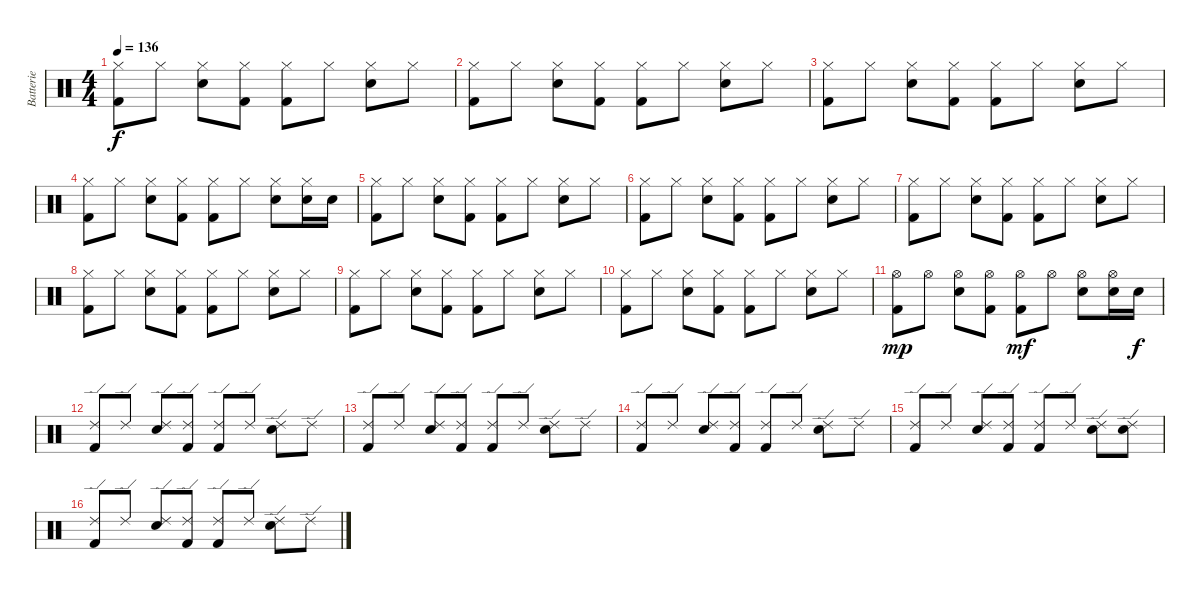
\track ("Batterie" "Batterie") {instrument percussion}
\staff {score}
\articulation defaults
\ts (4 4)
\tempo 136
\clef neutral
\ks c
("Hi-Hat (closed)" "Kick (hit) 2").8{dy f} "Hi-Hat (closed)".8 ("Hi-Hat (closed)" "Electric Snare (hit)").8 ("Hi-Hat (closed)" "Kick (hit) 2").8 ("Hi-Hat (closed)" "Kick (hit) 2").8 "Hi-Hat (closed)".8 ("Hi-Hat (closed)" "Electric Snare (hit)").8 "Hi-Hat (closed)".8 |
("Hi-Hat (closed)" "Kick (hit) 2").8 "Hi-Hat (closed)".8 ("Hi-Hat (closed)" "Electric Snare (hit)").8 ("Hi-Hat (closed)" "Kick (hit) 2").8 ("Hi-Hat (closed)" "Kick (hit) 2").8 "Hi-Hat (closed)".8 ("Hi-Hat (closed)" "Electric Snare (hit)").8 "Hi-Hat (closed)".8 |
("Hi-Hat (closed)" "Kick (hit) 2").8 "Hi-Hat (closed)".8 ("Hi-Hat (closed)" "Electric Snare (hit)").8 ("Hi-Hat (closed)" "Kick (hit) 2").8 ("Hi-Hat (closed)" "Kick (hit) 2").8 "Hi-Hat (closed)".8 ("Hi-Hat (closed)" "Electric Snare (hit)").8 "Hi-Hat (closed)".8 |
("Hi-Hat (closed)" "Kick (hit) 2").8 "Hi-Hat (closed)".8 ("Hi-Hat (closed)" "Electric Snare (hit)").8 ("Hi-Hat (closed)" "Kick (hit) 2").8 ("Hi-Hat (closed)" "Kick (hit) 2").8 "Hi-Hat (closed)".8 ("Hi-Hat (closed)" "Electric Snare (hit)").8 ("Hi-Hat (closed)" "Electric Snare (hit)").16 "Electric Snare (hit)".16 |
("Hi-Hat (closed)" "Kick (hit) 2").8 "Hi-Hat (closed)".8 ("Hi-Hat (closed)" "Electric Snare (hit)").8 ("Hi-Hat (closed)" "Kick (hit) 2").8 ("Hi-Hat (closed)" "Kick (hit) 2").8 "Hi-Hat (closed)".8 ("Hi-Hat (closed)" "Electric Snare (hit)").8 "Hi-Hat (closed)".8 |
("Hi-Hat (closed)" "Kick (hit) 2").8 "Hi-Hat (closed)".8 ("Hi-Hat (closed)" "Electric Snare (hit)").8 ("Hi-Hat (closed)" "Kick (hit) 2").8 ("Hi-Hat (closed)" "Kick (hit) 2").8 "Hi-Hat (closed)".8 ("Hi-Hat (closed)" "Electric Snare (hit)").8 "Hi-Hat (closed)".8 |
("Hi-Hat (closed)" "Kick (hit) 2").8 "Hi-Hat (closed)".8 ("Hi-Hat (closed)" "Electric Snare (hit)").8 ("Hi-Hat (closed)" "Kick (hit) 2").8 ("Hi-Hat (closed)" "Kick (hit) 2").8 "Hi-Hat (closed)".8 ("Hi-Hat (closed)" "Electric Snare (hit)").8 "Hi-Hat (closed)".8 |
("Hi-Hat (closed)" "Kick (hit) 2").8 "Hi-Hat (closed)".8 ("Hi-Hat (closed)" "Electric Snare (hit)").8 ("Hi-Hat (closed)" "Kick (hit) 2").8 ("Hi-Hat (closed)" "Kick (hit) 2").8 "Hi-Hat (closed)".8 ("Hi-Hat (closed)" "Electric Snare (hit)").8 "Hi-Hat (closed)".8 |
("Hi-Hat (closed)" "Kick (hit) 2").8 "Hi-Hat (closed)".8 ("Hi-Hat (closed)" "Electric Snare (hit)").8 ("Hi-Hat (closed)" "Kick (hit) 2").8 ("Hi-Hat (closed)" "Kick (hit) 2").8 "Hi-Hat (closed)".8 ("Hi-Hat (closed)" "Electric Snare (hit)").8 "Hi-Hat (closed)".8 |
("Hi-Hat (closed)" "Kick (hit) 2").8 "Hi-Hat (closed)".8 ("Hi-Hat (closed)" "Electric Snare (hit)").8 ("Hi-Hat (closed)" "Kick (hit) 2").8 ("Hi-Hat (closed)" "Kick (hit) 2").8 "Hi-Hat (closed)".8 ("Hi-Hat (closed)" "Electric Snare (hit)").8 "Hi-Hat (closed)".8 |
("Hi-Hat (open)" "Kick (hit) 2").8{dy mp} "Hi-Hat (open)".8 ("Hi-Hat (open)" "Electric Snare (hit)").8 ("Hi-Hat (open)" "Kick (hit) 2").8 ("Hi-Hat (open)" "Kick (hit) 2").8{dy mf} "Hi-Hat (open)".8 ("Hi-Hat (open)" "Electric Snare (hit)").8 ("Hi-Hat (open)" "Electric Snare (hit)").16 "Electric Snare (hit)".16{dy f} |
("Ride (edge) 2" "Kick (hit) 2").8 "Ride (edge) 2".8 ("Ride (edge) 2" "Electric Snare (hit)").8 ("Ride (edge) 2" "Kick (hit) 2").8 ("Ride (edge) 2" "Kick (hit) 2").8 "Ride (edge) 2".8 ("Ride (edge) 2" "Electric Snare (hit)").8 "Ride (edge) 2".8 |
("Ride (edge) 2" "Kick (hit) 2").8 "Ride (edge) 2".8 ("Ride (edge) 2" "Electric Snare (hit)").8 ("Ride (edge) 2" "Kick (hit) 2").8 ("Ride (edge) 2" "Kick (hit) 2").8 "Ride (edge) 2".8 ("Ride (edge) 2" "Electric Snare (hit)").8 "Ride (edge) 2".8 |
("Ride (edge) 2" "Kick (hit) 2").8 "Ride (edge) 2".8 ("Ride (edge) 2" "Electric Snare (hit)").8 ("Ride (edge) 2" "Kick (hit) 2").8 ("Ride (edge) 2" "Kick (hit) 2").8 "Ride (edge) 2".8 ("Ride (edge) 2" "Electric Snare (hit)").8 "Ride (edge) 2".8 |
("Ride (edge) 2" "Kick (hit) 2").8 "Ride (edge) 2".8 ("Ride (edge) 2" "Electric Snare (hit)").8 ("Ride (edge) 2" "Kick (hit) 2").8 ("Ride (edge) 2" "Kick (hit) 2").8 "Ride (edge) 2".8 ("Ride (edge) 2" "Electric Snare (hit)").8 ("Ride (edge) 2" "Electric Snare (hit)").8 |
("Ride (edge) 2" "Kick (hit) 2").8 "Ride (edge) 2".8 ("Ride (edge) 2" "Electric Snare (hit)").8 ("Ride (edge) 2" "Kick (hit) 2").8 ("Ride (edge) 2" "Kick (hit) 2").8 "Ride (edge) 2".8 ("Ride (edge) 2" "Electric Snare (hit)").8 "Ride (edge) 2".8
